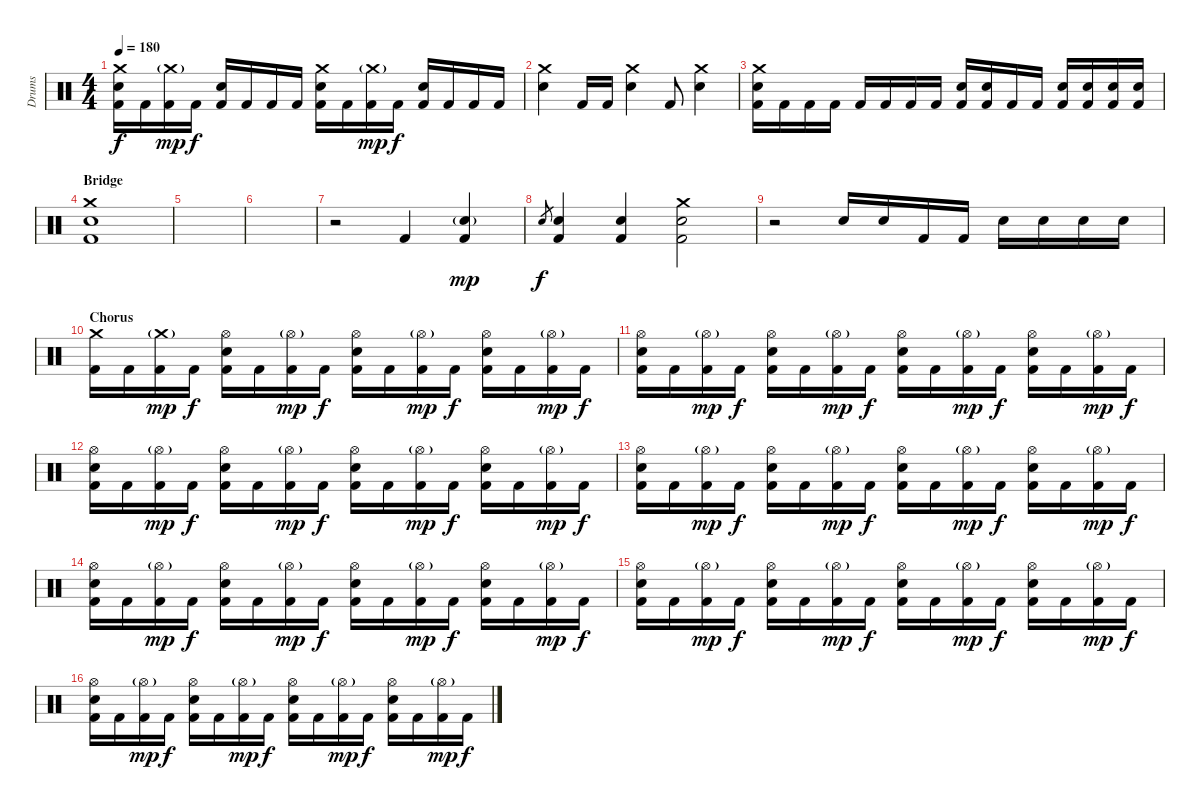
\track ("Drums" "Drums") {instrument percussion}
\staff {score}
\articulation defaults
\ts (4 4)
\tempo 180
\clef neutral
\ks c
("Crash medium (hit)" "Electric Snare (hit)" "Kick (hit) 2").16{dy f} "Kick (hit) 2".16 ("Crash medium (hit)"{g} "Kick (hit) 2").16{dy mp} "Kick (hit) 2".16{dy f} ("Electric Snare (hit)" "Kick (hit) 2").16 "Kick (hit) 2".16 "Kick (hit) 2".16 "Kick (hit) 2".16 ("Crash medium (hit)" "Electric Snare (hit)" "Kick (hit) 2").16 "Kick (hit) 2".16 ("Crash medium (hit)"{g} "Kick (hit) 2").16{dy mp} "Kick (hit) 2".16{dy f} ("Electric Snare (hit)" "Kick (hit) 2").16 "Kick (hit) 2".16 "Kick (hit) 2".16 "Kick (hit) 2".16 |
("Crash medium (hit)" "Electric Snare (hit)").4 "Kick (hit) 2".16 "Kick (hit) 2".16 ("Crash medium (hit)" "Electric Snare (hit)").4 "Kick (hit) 2".8 ("Crash medium (hit)" "Electric Snare (hit)").4 |
("Crash medium (hit)" "Electric Snare (hit)" "Kick (hit) 2").16 "Kick (hit) 2".16 "Kick (hit) 2".16 "Kick (hit) 2".16 "Kick (hit) 2".16 "Kick (hit) 2".16 "Kick (hit) 2".16 "Kick (hit) 2".16 ("Electric Snare (hit)" "Kick (hit) 2").16 ("Electric Snare (hit)" "Kick (hit) 2").16 "Kick (hit) 2".16 "Kick (hit) 2".16 ("Electric Snare (hit)" "Kick (hit) 2").16 ("Electric Snare (hit)" "Kick (hit) 2").16 ("Electric Snare (hit)" "Kick (hit) 2").16 ("Electric Snare (hit)" "Kick (hit) 2").16 |
\section ("" "Bridge")
("Crash medium (hit)" "Electric Snare (hit)" "Kick (hit) 2").1 |
|
|
r.2 "Kick (hit) 2".4 ("Electric Snare (hit)"{g} "Kick (hit) 2").4{dy mp} |
"Electric Snare (hit)".8{gr dy f} ("Electric Snare (hit)" "Kick (hit) 2").4 ("Electric Snare (hit)" "Kick (hit) 2").4 ("Crash medium (hit)" "Electric Snare (hit)" "Kick (hit) 2").2 |
r.2 "Electric Snare (hit)".16 "Electric Snare (hit)".16 "Kick (hit) 2".16 "Kick (hit) 2".16 "Electric Snare (hit)".16 "Electric Snare (hit)".16 "Electric Snare (hit)".16 "Electric Snare (hit)".16 |
\section ("" "Chorus")
("Crash medium (hit)" "Kick (hit) 2").16 "Kick (hit) 2".16 ("Crash medium (hit)"{g} "Kick (hit) 2").16{dy mp} "Kick (hit) 2".16{dy f} ("Hi-Hat (open)" "Electric Snare (hit)" "Kick (hit) 2").16 "Kick (hit) 2".16 ("Hi-Hat (open)"{g} "Kick (hit) 2").16{dy mp} "Kick (hit) 2".16{dy f} ("Hi-Hat (open)" "Electric Snare (hit)" "Kick (hit) 2").16 "Kick (hit) 2".16 ("Hi-Hat (open)"{g} "Kick (hit) 2").16{dy mp} "Kick (hit) 2".16{dy f} ("Hi-Hat (open)" "Electric Snare (hit)" "Kick (hit) 2").16 "Kick (hit) 2".16 ("Hi-Hat (open)"{g} "Kick (hit) 2").16{dy mp} "Kick (hit) 2".16{dy f} |
("Hi-Hat (open)" "Electric Snare (hit)" "Kick (hit) 2").16 "Kick (hit) 2".16 ("Hi-Hat (open)"{g} "Kick (hit) 2").16{dy mp} "Kick (hit) 2".16{dy f} ("Hi-Hat (open)" "Electric Snare (hit)" "Kick (hit) 2").16 "Kick (hit) 2".16 ("Hi-Hat (open)"{g} "Kick (hit) 2").16{dy mp} "Kick (hit) 2".16{dy f} ("Hi-Hat (open)" "Electric Snare (hit)" "Kick (hit) 2").16 "Kick (hit) 2".16 ("Hi-Hat (open)"{g} "Kick (hit) 2").16{dy mp} "Kick (hit) 2".16{dy f} ("Hi-Hat (open)" "Electric Snare (hit)" "Kick (hit) 2").16 "Kick (hit) 2".16 ("Hi-Hat (open)"{g} "Kick (hit) 2").16{dy mp} "Kick (hit) 2".16{dy f} |
("Hi-Hat (open)" "Electric Snare (hit)" "Kick (hit) 2").16 "Kick (hit) 2".16 ("Hi-Hat (open)"{g} "Kick (hit) 2").16{dy mp} "Kick (hit) 2".16{dy f} ("Hi-Hat (open)" "Electric Snare (hit)" "Kick (hit) 2").16 "Kick (hit) 2".16 ("Hi-Hat (open)"{g} "Kick (hit) 2").16{dy mp} "Kick (hit) 2".16{dy f} ("Hi-Hat (open)" "Electric Snare (hit)" "Kick (hit) 2").16 "Kick (hit) 2".16 ("Hi-Hat (open)"{g} "Kick (hit) 2").16{dy mp} "Kick (hit) 2".16{dy f} ("Hi-Hat (open)" "Electric Snare (hit)" "Kick (hit) 2").16 "Kick (hit) 2".16 ("Hi-Hat (open)"{g} "Kick (hit) 2").16{dy mp} "Kick (hit) 2".16{dy f} |
("Hi-Hat (open)" "Electric Snare (hit)" "Kick (hit) 2").16 "Kick (hit) 2".16 ("Hi-Hat (open)"{g} "Kick (hit) 2").16{dy mp} "Kick (hit) 2".16{dy f} ("Hi-Hat (open)" "Electric Snare (hit)" "Kick (hit) 2").16 "Kick (hit) 2".16 ("Hi-Hat (open)"{g} "Kick (hit) 2").16{dy mp} "Kick (hit) 2".16{dy f} ("Hi-Hat (open)" "Electric Snare (hit)" "Kick (hit) 2").16 "Kick (hit) 2".16 ("Hi-Hat (open)"{g} "Kick (hit) 2").16{dy mp} "Kick (hit) 2".16{dy f} ("Hi-Hat (open)" "Electric Snare (hit)" "Kick (hit) 2").16 "Kick (hit) 2".16 ("Hi-Hat (open)"{g} "Kick (hit) 2").16{dy mp} "Kick (hit) 2".16{dy f} |
("Hi-Hat (open)" "Electric Snare (hit)" "Kick (hit) 2").16 "Kick (hit) 2".16 ("Hi-Hat (open)"{g} "Kick (hit) 2").16{dy mp} "Kick (hit) 2".16{dy f} ("Hi-Hat (open)" "Electric Snare (hit)" "Kick (hit) 2").16 "Kick (hit) 2".16 ("Hi-Hat (open)"{g} "Kick (hit) 2").16{dy mp} "Kick (hit) 2".16{dy f} ("Hi-Hat (open)" "Electric Snare (hit)" "Kick (hit) 2").16 "Kick (hit) 2".16 ("Hi-Hat (open)"{g} "Kick (hit) 2").16{dy mp} "Kick (hit) 2".16{dy f} ("Hi-Hat (open)" "Electric Snare (hit)" "Kick (hit) 2").16 "Kick (hit) 2".16 ("Hi-Hat (open)"{g} "Kick (hit) 2").16{dy mp} "Kick (hit) 2".16{dy f} |
("Hi-Hat (open)" "Electric Snare (hit)" "Kick (hit) 2").16 "Kick (hit) 2".16 ("Hi-Hat (open)"{g} "Kick (hit) 2").16{dy mp} "Kick (hit) 2".16{dy f} ("Hi-Hat (open)" "Electric Snare (hit)" "Kick (hit) 2").16 "Kick (hit) 2".16 ("Hi-Hat (open)"{g} "Kick (hit) 2").16{dy mp} "Kick (hit) 2".16{dy f} ("Hi-Hat (open)" "Electric Snare (hit)" "Kick (hit) 2").16 "Kick (hit) 2".16 ("Hi-Hat (open)"{g} "Kick (hit) 2").16{dy mp} "Kick (hit) 2".16{dy f} ("Hi-Hat (open)" "Electric Snare (hit)" "Kick (hit) 2").16 "Kick (hit) 2".16 ("Hi-Hat (open)"{g} "Kick (hit) 2").16{dy mp} "Kick (hit) 2".16{dy f} |
("Hi-Hat (open)" "Electric Snare (hit)" "Kick (hit) 2").16 "Kick (hit) 2".16 ("Hi-Hat (open)"{g} "Kick (hit) 2").16{dy mp} "Kick (hit) 2".16{dy f} ("Hi-Hat (open)" "Electric Snare (hit)" "Kick (hit) 2").16 "Kick (hit) 2".16 ("Hi-Hat (open)"{g} "Kick (hit) 2").16{dy mp} "Kick (hit) 2".16{dy f} ("Hi-Hat (open)" "Electric Snare (hit)" "Kick (hit) 2").16 "Kick (hit) 2".16 ("Hi-Hat (open)"{g} "Kick (hit) 2").16{dy mp} "Kick (hit) 2".16{dy f} ("Hi-Hat (open)" "Electric Snare (hit)" "Kick (hit) 2").16 "Kick (hit) 2".16 ("Hi-Hat (open)"{g} "Kick (hit) 2").16{dy mp} "Kick (hit) 2".16{dy f}
